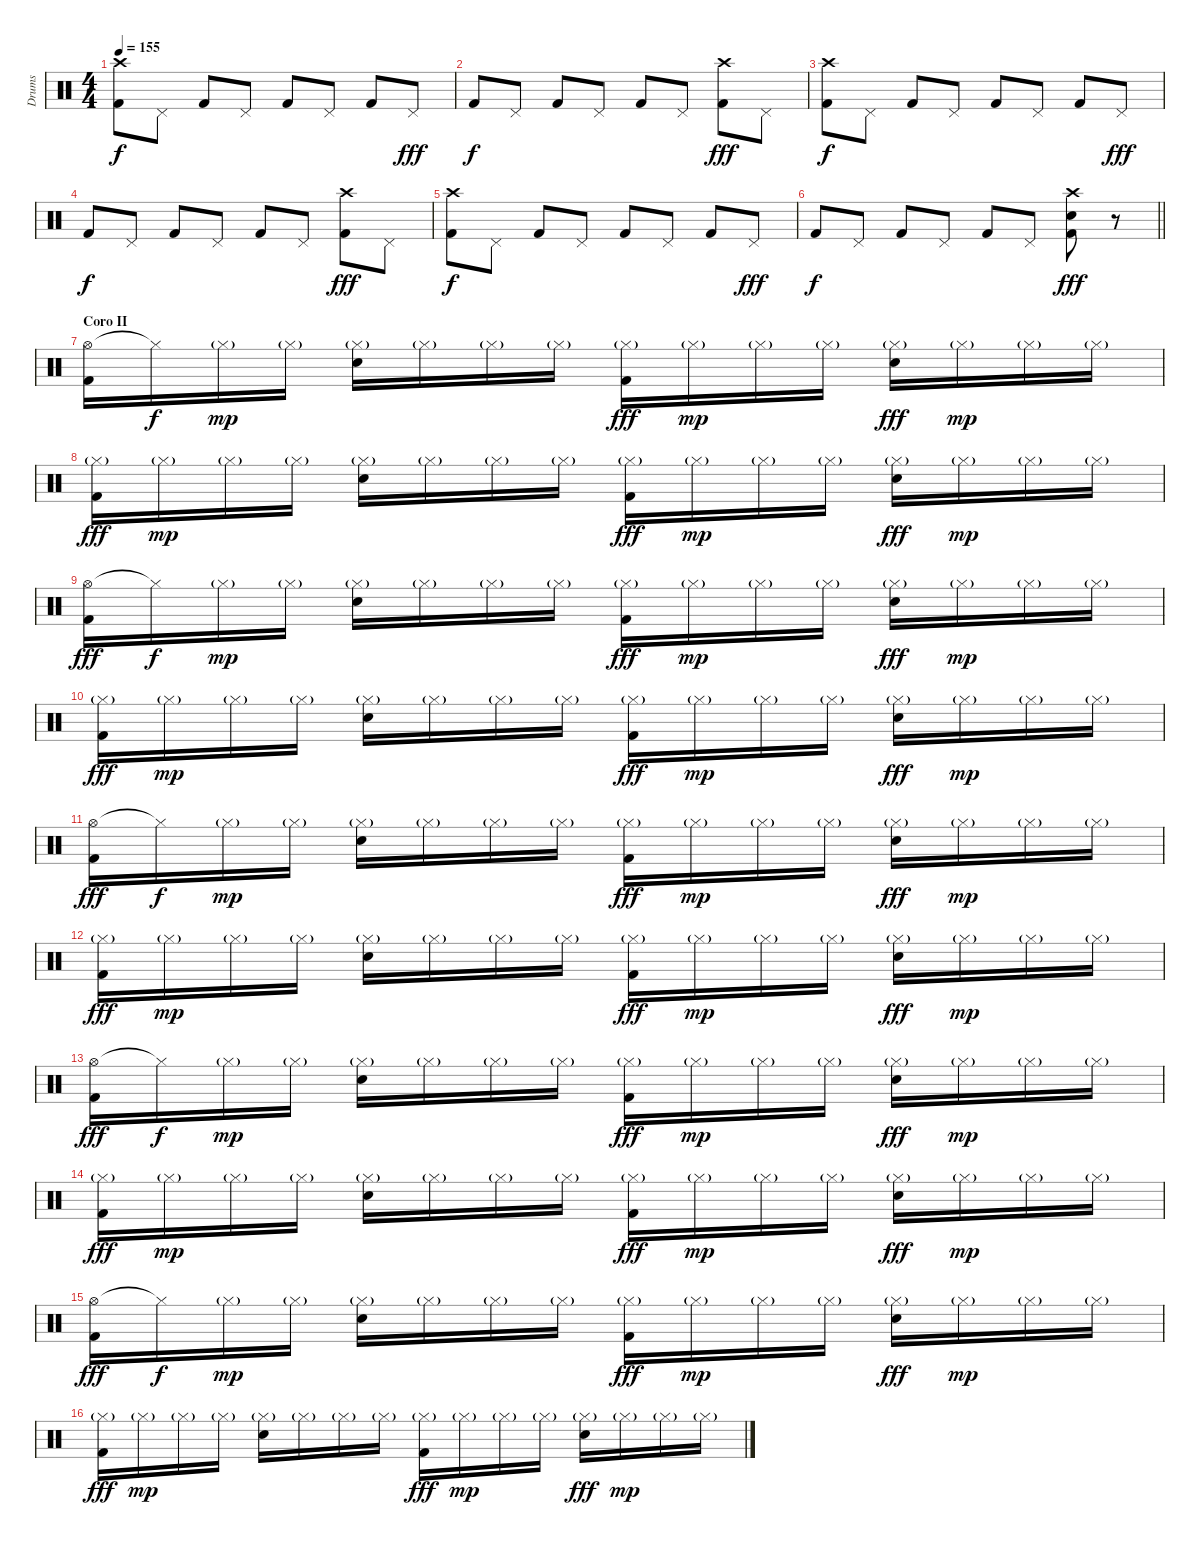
\track ("Drums" "Drums") {instrument percussion}
\staff {score}
\articulation defaults
\ts (4 4)
\tempo 155
\clef neutral
\ks c
("Crash high (hit)" "Kick (hit) 2").8{dy f} "Pedal Hi-Hat (hit)".8 "Kick (hit) 2".8 "Pedal Hi-Hat (hit)".8 "Kick (hit) 2".8 "Pedal Hi-Hat (hit)".8 "Kick (hit) 2".8 "Pedal Hi-Hat (hit)".8{dy fff} |
"Kick (hit) 2".8{dy f} "Pedal Hi-Hat (hit)".8 "Kick (hit) 2".8 "Pedal Hi-Hat (hit)".8 "Kick (hit) 2".8 "Pedal Hi-Hat (hit)".8 ("Crash high (hit)" "Kick (hit) 2").8{dy fff} "Pedal Hi-Hat (hit)".8 |
("Crash high (hit)" "Kick (hit) 2").8{dy f} "Pedal Hi-Hat (hit)".8 "Kick (hit) 2".8 "Pedal Hi-Hat (hit)".8 "Kick (hit) 2".8 "Pedal Hi-Hat (hit)".8 "Kick (hit) 2".8 "Pedal Hi-Hat (hit)".8{dy fff} |
"Kick (hit) 2".8{dy f} "Pedal Hi-Hat (hit)".8 "Kick (hit) 2".8 "Pedal Hi-Hat (hit)".8 "Kick (hit) 2".8 "Pedal Hi-Hat (hit)".8 ("Crash high (hit)" "Kick (hit) 2").8{dy fff} "Pedal Hi-Hat (hit)".8 |
("Crash high (hit)" "Kick (hit) 2").8{dy f} "Pedal Hi-Hat (hit)".8 "Kick (hit) 2".8 "Pedal Hi-Hat (hit)".8 "Kick (hit) 2".8 "Pedal Hi-Hat (hit)".8 "Kick (hit) 2".8 "Pedal Hi-Hat (hit)".8{dy fff} |
\barLineRight lightlight "Kick (hit) 2".8{dy f} "Pedal Hi-Hat (hit)".8 "Kick (hit) 2".8 "Pedal Hi-Hat (hit)".8 "Kick (hit) 2".8 "Pedal Hi-Hat (hit)".8
("Crash high (hit)" "Electric Snare (hit)" "Kick (hit) 2").8{dy fff} r.8 |
\section ("" "Coro II")
("Hi-Hat (open)" "Kick (hit) 2").16 "Hi-Hat (closed)"{t}.16{dy f} "Hi-Hat (closed)"{g}.16{dy mp} "Hi-Hat (closed)"{g}.16 ("Hi-Hat (closed)"{g} "Electric Snare (hit)").16 "Hi-Hat (closed)"{g}.16 "Hi-Hat (closed)"{g}.16 "Hi-Hat (closed)"{g}.16 ("Hi-Hat (closed)"{g} "Kick (hit) 2").16{dy fff} "Hi-Hat (closed)"{g}.16{dy mp} "Hi-Hat (closed)"{g}.16 "Hi-Hat (closed)"{g}.16 ("Hi-Hat (closed)"{g} "Electric Snare (hit)").16{dy fff} "Hi-Hat (closed)"{g}.16{dy mp} "Hi-Hat (closed)"{g}.16 "Hi-Hat (closed)"{g}.16 |
("Hi-Hat (closed)"{g} "Kick (hit) 2").16{dy fff} "Hi-Hat (closed)"{g}.16{dy mp} "Hi-Hat (closed)"{g}.16 "Hi-Hat (closed)"{g}.16 ("Hi-Hat (closed)"{g} "Electric Snare (hit)").16 "Hi-Hat (closed)"{g}.16 "Hi-Hat (closed)"{g}.16 "Hi-Hat (closed)"{g}.16 ("Hi-Hat (closed)"{g} "Kick (hit) 2").16{dy fff} "Hi-Hat (closed)"{g}.16{dy mp} "Hi-Hat (closed)"{g}.16 "Hi-Hat (closed)"{g}.16 ("Hi-Hat (closed)"{g} "Electric Snare (hit)").16{dy fff} "Hi-Hat (closed)"{g}.16{dy mp} "Hi-Hat (closed)"{g}.16 "Hi-Hat (closed)"{g}.16 |
("Hi-Hat (open)" "Kick (hit) 2").16{dy fff} "Hi-Hat (closed)"{t}.16{dy f} "Hi-Hat (closed)"{g}.16{dy mp} "Hi-Hat (closed)"{g}.16 ("Hi-Hat (closed)"{g} "Electric Snare (hit)").16 "Hi-Hat (closed)"{g}.16 "Hi-Hat (closed)"{g}.16 "Hi-Hat (closed)"{g}.16 ("Hi-Hat (closed)"{g} "Kick (hit) 2").16{dy fff} "Hi-Hat (closed)"{g}.16{dy mp} "Hi-Hat (closed)"{g}.16 "Hi-Hat (closed)"{g}.16 ("Hi-Hat (closed)"{g} "Electric Snare (hit)").16{dy fff} "Hi-Hat (closed)"{g}.16{dy mp} "Hi-Hat (closed)"{g}.16 "Hi-Hat (closed)"{g}.16 |
("Hi-Hat (closed)"{g} "Kick (hit) 2").16{dy fff} "Hi-Hat (closed)"{g}.16{dy mp} "Hi-Hat (closed)"{g}.16 "Hi-Hat (closed)"{g}.16 ("Hi-Hat (closed)"{g} "Electric Snare (hit)").16 "Hi-Hat (closed)"{g}.16 "Hi-Hat (closed)"{g}.16 "Hi-Hat (closed)"{g}.16 ("Hi-Hat (closed)"{g} "Kick (hit) 2").16{dy fff} "Hi-Hat (closed)"{g}.16{dy mp} "Hi-Hat (closed)"{g}.16 "Hi-Hat (closed)"{g}.16 ("Hi-Hat (closed)"{g} "Electric Snare (hit)").16{dy fff} "Hi-Hat (closed)"{g}.16{dy mp} "Hi-Hat (closed)"{g}.16 "Hi-Hat (closed)"{g}.16 |
("Hi-Hat (open)" "Kick (hit) 2").16{dy fff} "Hi-Hat (closed)"{t}.16{dy f} "Hi-Hat (closed)"{g}.16{dy mp} "Hi-Hat (closed)"{g}.16 ("Hi-Hat (closed)"{g} "Electric Snare (hit)").16 "Hi-Hat (closed)"{g}.16 "Hi-Hat (closed)"{g}.16 "Hi-Hat (closed)"{g}.16 ("Hi-Hat (closed)"{g} "Kick (hit) 2").16{dy fff} "Hi-Hat (closed)"{g}.16{dy mp} "Hi-Hat (closed)"{g}.16 "Hi-Hat (closed)"{g}.16 ("Hi-Hat (closed)"{g} "Electric Snare (hit)").16{dy fff} "Hi-Hat (closed)"{g}.16{dy mp} "Hi-Hat (closed)"{g}.16 "Hi-Hat (closed)"{g}.16 |
("Hi-Hat (closed)"{g} "Kick (hit) 2").16{dy fff} "Hi-Hat (closed)"{g}.16{dy mp} "Hi-Hat (closed)"{g}.16 "Hi-Hat (closed)"{g}.16 ("Hi-Hat (closed)"{g} "Electric Snare (hit)").16 "Hi-Hat (closed)"{g}.16 "Hi-Hat (closed)"{g}.16 "Hi-Hat (closed)"{g}.16 ("Hi-Hat (closed)"{g} "Kick (hit) 2").16{dy fff} "Hi-Hat (closed)"{g}.16{dy mp} "Hi-Hat (closed)"{g}.16 "Hi-Hat (closed)"{g}.16 ("Hi-Hat (closed)"{g} "Electric Snare (hit)").16{dy fff} "Hi-Hat (closed)"{g}.16{dy mp} "Hi-Hat (closed)"{g}.16 "Hi-Hat (closed)"{g}.16 |
("Hi-Hat (open)" "Kick (hit) 2").16{dy fff} "Hi-Hat (closed)"{t}.16{dy f} "Hi-Hat (closed)"{g}.16{dy mp} "Hi-Hat (closed)"{g}.16 ("Hi-Hat (closed)"{g} "Electric Snare (hit)").16 "Hi-Hat (closed)"{g}.16 "Hi-Hat (closed)"{g}.16 "Hi-Hat (closed)"{g}.16 ("Hi-Hat (closed)"{g} "Kick (hit) 2").16{dy fff} "Hi-Hat (closed)"{g}.16{dy mp} "Hi-Hat (closed)"{g}.16 "Hi-Hat (closed)"{g}.16 ("Hi-Hat (closed)"{g} "Electric Snare (hit)").16{dy fff} "Hi-Hat (closed)"{g}.16{dy mp} "Hi-Hat (closed)"{g}.16 "Hi-Hat (closed)"{g}.16 |
("Hi-Hat (closed)"{g} "Kick (hit) 2").16{dy fff} "Hi-Hat (closed)"{g}.16{dy mp} "Hi-Hat (closed)"{g}.16 "Hi-Hat (closed)"{g}.16 ("Hi-Hat (closed)"{g} "Electric Snare (hit)").16 "Hi-Hat (closed)"{g}.16 "Hi-Hat (closed)"{g}.16 "Hi-Hat (closed)"{g}.16 ("Hi-Hat (closed)"{g} "Kick (hit) 2").16{dy fff} "Hi-Hat (closed)"{g}.16{dy mp} "Hi-Hat (closed)"{g}.16 "Hi-Hat (closed)"{g}.16 ("Hi-Hat (closed)"{g} "Electric Snare (hit)").16{dy fff} "Hi-Hat (closed)"{g}.16{dy mp} "Hi-Hat (closed)"{g}.16 "Hi-Hat (closed)"{g}.16 |
("Hi-Hat (open)" "Kick (hit) 2").16{dy fff} "Hi-Hat (closed)"{t}.16{dy f} "Hi-Hat (closed)"{g}.16{dy mp} "Hi-Hat (closed)"{g}.16 ("Hi-Hat (closed)"{g} "Electric Snare (hit)").16 "Hi-Hat (closed)"{g}.16 "Hi-Hat (closed)"{g}.16 "Hi-Hat (closed)"{g}.16 ("Hi-Hat (closed)"{g} "Kick (hit) 2").16{dy fff} "Hi-Hat (closed)"{g}.16{dy mp} "Hi-Hat (closed)"{g}.16 "Hi-Hat (closed)"{g}.16 ("Hi-Hat (closed)"{g} "Electric Snare (hit)").16{dy fff} "Hi-Hat (closed)"{g}.16{dy mp} "Hi-Hat (closed)"{g}.16 "Hi-Hat (closed)"{g}.16 |
("Hi-Hat (closed)"{g} "Kick (hit) 2").16{dy fff} "Hi-Hat (closed)"{g}.16{dy mp} "Hi-Hat (closed)"{g}.16 "Hi-Hat (closed)"{g}.16 ("Hi-Hat (closed)"{g} "Electric Snare (hit)").16 "Hi-Hat (closed)"{g}.16 "Hi-Hat (closed)"{g}.16 "Hi-Hat (closed)"{g}.16 ("Hi-Hat (closed)"{g} "Kick (hit) 2").16{dy fff} "Hi-Hat (closed)"{g}.16{dy mp} "Hi-Hat (closed)"{g}.16 "Hi-Hat (closed)"{g}.16 ("Hi-Hat (closed)"{g} "Electric Snare (hit)").16{dy fff} "Hi-Hat (closed)"{g}.16{dy mp} "Hi-Hat (closed)"{g}.16 "Hi-Hat (closed)"{g}.16
